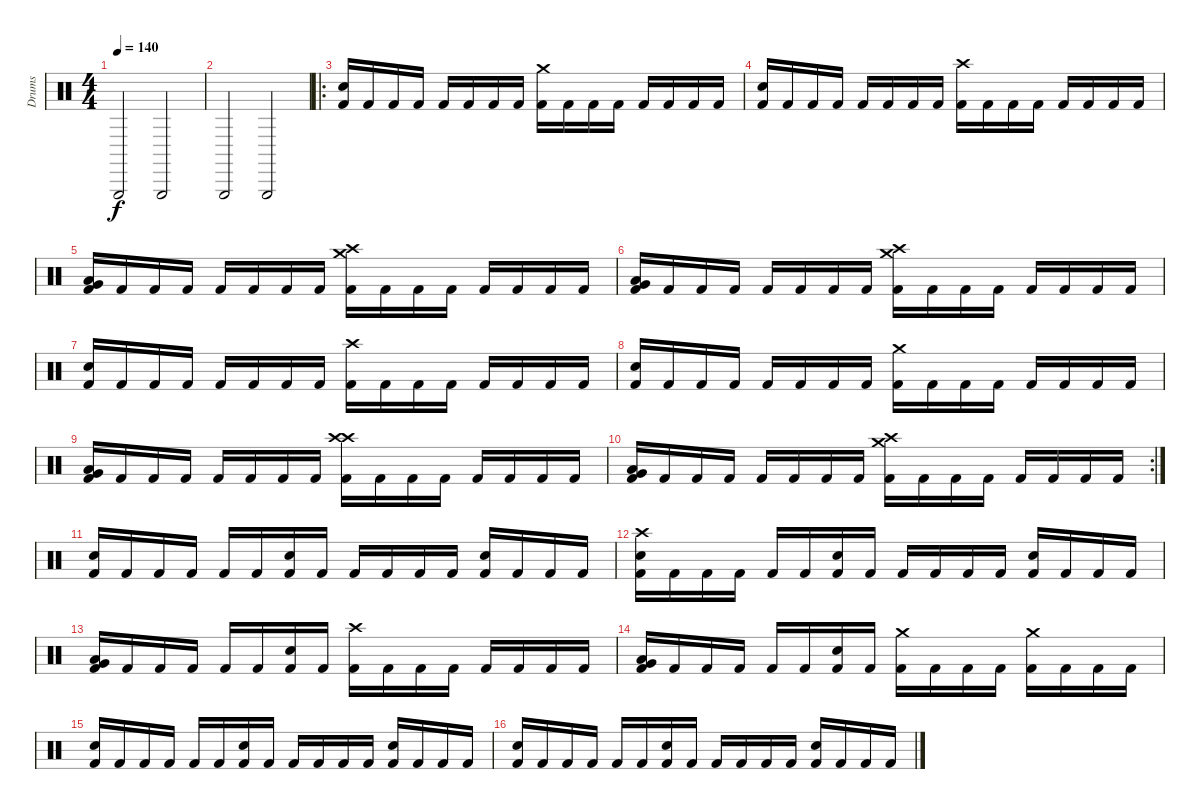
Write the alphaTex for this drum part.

\track ("Drums" "Drums") {instrument percussion}
\staff {score}
\articulation defaults
\ts (4 4)
\tempo 140
\clef neutral
\ks c "Triangle (hit)".2{dy f} "Triangle (hit)".2
|
"Triangle (hit)".2 "Triangle (hit)".2 |
\ro
("Kick (hit) 2" "Snare (hit) 2").16 "Kick (hit) 2".16 "Kick (hit) 2".16 "Kick (hit) 2".16 "Kick (hit) 2".16 "Kick (hit) 2".16 "Kick (hit) 2".16 "Kick (hit) 2".16 ("Kick (hit) 2" "Crash medium (hit)").16 "Kick (hit) 2".16 "Kick (hit) 2".16 "Kick (hit) 2".16 "Kick (hit) 2".16 "Kick (hit) 2".16 "Kick (hit) 2".16 "Kick (hit) 2".16 |
("Kick (hit) 2" "Snare (hit) 2").16 "Kick (hit) 2".16 "Kick (hit) 2".16 "Kick (hit) 2".16 "Kick (hit) 2".16 "Kick (hit) 2".16 "Kick (hit) 2".16 "Kick (hit) 2".16 ("Kick (hit) 2" "Crash high (hit)").16 "Kick (hit) 2".16 "Kick (hit) 2".16 "Kick (hit) 2".16 "Kick (hit) 2".16 "Kick (hit) 2".16 "Kick (hit) 2".16 "Kick (hit) 2".16 |
("Kick (hit) 2" "Very Low Tom (hit)" "Low Tom (hit)").16 "Kick (hit) 2".16 "Kick (hit) 2".16 "Kick (hit) 2".16 "Kick (hit) 2".16 "Kick (hit) 2".16 "Kick (hit) 2".16 "Kick (hit) 2".16 ("Kick (hit) 2" "Crash high (hit)" "Crash medium (hit)").16 "Kick (hit) 2".16 "Kick (hit) 2".16 "Kick (hit) 2".16 "Kick (hit) 2".16 "Kick (hit) 2".16 "Kick (hit) 2".16 "Kick (hit) 2".16 |
("Kick (hit) 2" "Very Low Tom (hit)" "Low Tom (hit)").16 "Kick (hit) 2".16 "Kick (hit) 2".16 "Kick (hit) 2".16 "Kick (hit) 2".16 "Kick (hit) 2".16 "Kick (hit) 2".16 "Kick (hit) 2".16 ("Kick (hit) 2" "Crash medium (hit)" "Crash high (hit)").16 "Kick (hit) 2".16 "Kick (hit) 2".16 "Kick (hit) 2".16 "Kick (hit) 2".16 "Kick (hit) 2".16 "Kick (hit) 2".16 "Kick (hit) 2".16 |
("Kick (hit) 2" "Snare (hit) 2").16 "Kick (hit) 2".16 "Kick (hit) 2".16 "Kick (hit) 2".16 "Kick (hit) 2".16 "Kick (hit) 2".16 "Kick (hit) 2".16 "Kick (hit) 2".16 ("Kick (hit) 2" "Crash high (hit)").16 "Kick (hit) 2".16 "Kick (hit) 2".16 "Kick (hit) 2".16 "Kick (hit) 2".16 "Kick (hit) 2".16 "Kick (hit) 2".16 "Kick (hit) 2".16 |
("Kick (hit) 2" "Snare (hit) 2").16 "Kick (hit) 2".16 "Kick (hit) 2".16 "Kick (hit) 2".16 "Kick (hit) 2".16 "Kick (hit) 2".16 "Kick (hit) 2".16 "Kick (hit) 2".16 ("Kick (hit) 2" "Crash medium (hit)").16 "Kick (hit) 2".16 "Kick (hit) 2".16 "Kick (hit) 2".16 "Kick (hit) 2".16 "Kick (hit) 2".16 "Kick (hit) 2".16 "Kick (hit) 2".16 |
("Kick (hit) 2" "Very Low Tom (hit)" "Low Tom (hit)").16 "Kick (hit) 2".16 "Kick (hit) 2".16 "Kick (hit) 2".16 "Kick (hit) 2".16 "Kick (hit) 2".16 "Kick (hit) 2".16 "Kick (hit) 2".16 ("Kick (hit) 2" "Crash high (hit)" "Crash high (hit)").16 "Kick (hit) 2".16 "Kick (hit) 2".16 "Kick (hit) 2".16 "Kick (hit) 2".16 "Kick (hit) 2".16 "Kick (hit) 2".16 "Kick (hit) 2".16 |
\rc 2
("Kick (hit) 2" "Very Low Tom (hit)" "Low Tom (hit)").16 "Kick (hit) 2".16 "Kick (hit) 2".16 "Kick (hit) 2".16 "Kick (hit) 2".16 "Kick (hit) 2".16 "Kick (hit) 2".16 "Kick (hit) 2".16 ("Kick (hit) 2" "Crash medium (hit)" "Crash high (hit)").16 "Kick (hit) 2".16 "Kick (hit) 2".16 "Kick (hit) 2".16 "Kick (hit) 2".16 "Kick (hit) 2".16 "Kick (hit) 2".16 "Kick (hit) 2".16 |
("Kick (hit) 2" "Snare (hit) 2").16 "Kick (hit) 2".16 "Kick (hit) 2".16 "Kick (hit) 2".16 "Kick (hit) 2".16 "Kick (hit) 2".16 ("Kick (hit) 2" "Snare (hit) 2").16 "Kick (hit) 2".16 "Kick (hit) 2".16 "Kick (hit) 2".16 "Kick (hit) 2".16 "Kick (hit) 2".16 ("Kick (hit) 2" "Snare (hit) 2").16 "Kick (hit) 2".16 "Kick (hit) 2".16 "Kick (hit) 2".16 |
("Kick (hit) 2" "Snare (hit) 2" "Crash high (hit)").16 "Kick (hit) 2".16 "Kick (hit) 2".16 "Kick (hit) 2".16 "Kick (hit) 2".16 "Kick (hit) 2".16 ("Kick (hit) 2" "Snare (hit) 2").16 "Kick (hit) 2".16 "Kick (hit) 2".16 "Kick (hit) 2".16 "Kick (hit) 2".16 "Kick (hit) 2".16 ("Kick (hit) 2" "Snare (hit) 2").16 "Kick (hit) 2".16 "Kick (hit) 2".16 "Kick (hit) 2".16 |
("Kick (hit) 2" "Very Low Tom (hit)" "Low Tom (hit)").16 "Kick (hit) 2".16 "Kick (hit) 2".16 "Kick (hit) 2".16 "Kick (hit) 2".16 "Kick (hit) 2".16 ("Kick (hit) 2" "Snare (hit) 2").16 "Kick (hit) 2".16 ("Kick (hit) 2" "Crash high (hit)").16 "Kick (hit) 2".16 "Kick (hit) 2".16 "Kick (hit) 2".16 "Kick (hit) 2".16 "Kick (hit) 2".16 "Kick (hit) 2".16 "Kick (hit) 2".16 |
("Kick (hit) 2" "Very Low Tom (hit)" "Low Tom (hit)").16 "Kick (hit) 2".16 "Kick (hit) 2".16 "Kick (hit) 2".16 "Kick (hit) 2".16 "Kick (hit) 2".16 ("Kick (hit) 2" "Snare (hit) 2").16 "Kick (hit) 2".16 ("Kick (hit) 2" "Crash medium (hit)").16 "Kick (hit) 2".16 "Kick (hit) 2".16 "Kick (hit) 2".16 ("Kick (hit) 2" "Crash medium (hit)").16 "Kick (hit) 2".16 "Kick (hit) 2".16 "Kick (hit) 2".16 |
("Kick (hit) 2" "Snare (hit) 2").16 "Kick (hit) 2".16 "Kick (hit) 2".16 "Kick (hit) 2".16 "Kick (hit) 2".16 "Kick (hit) 2".16 ("Kick (hit) 2" "Snare (hit) 2").16 "Kick (hit) 2".16 "Kick (hit) 2".16 "Kick (hit) 2".16 "Kick (hit) 2".16 "Kick (hit) 2".16 ("Kick (hit) 2" "Snare (hit) 2").16 "Kick (hit) 2".16 "Kick (hit) 2".16 "Kick (hit) 2".16 |
("Kick (hit) 2" "Snare (hit) 2").16 "Kick (hit) 2".16 "Kick (hit) 2".16 "Kick (hit) 2".16 "Kick (hit) 2".16 "Kick (hit) 2".16 ("Kick (hit) 2" "Snare (hit) 2").16 "Kick (hit) 2".16 "Kick (hit) 2".16 "Kick (hit) 2".16 "Kick (hit) 2".16 "Kick (hit) 2".16 ("Kick (hit) 2" "Snare (hit) 2").16 "Kick (hit) 2".16 "Kick (hit) 2".16 "Kick (hit) 2".16
